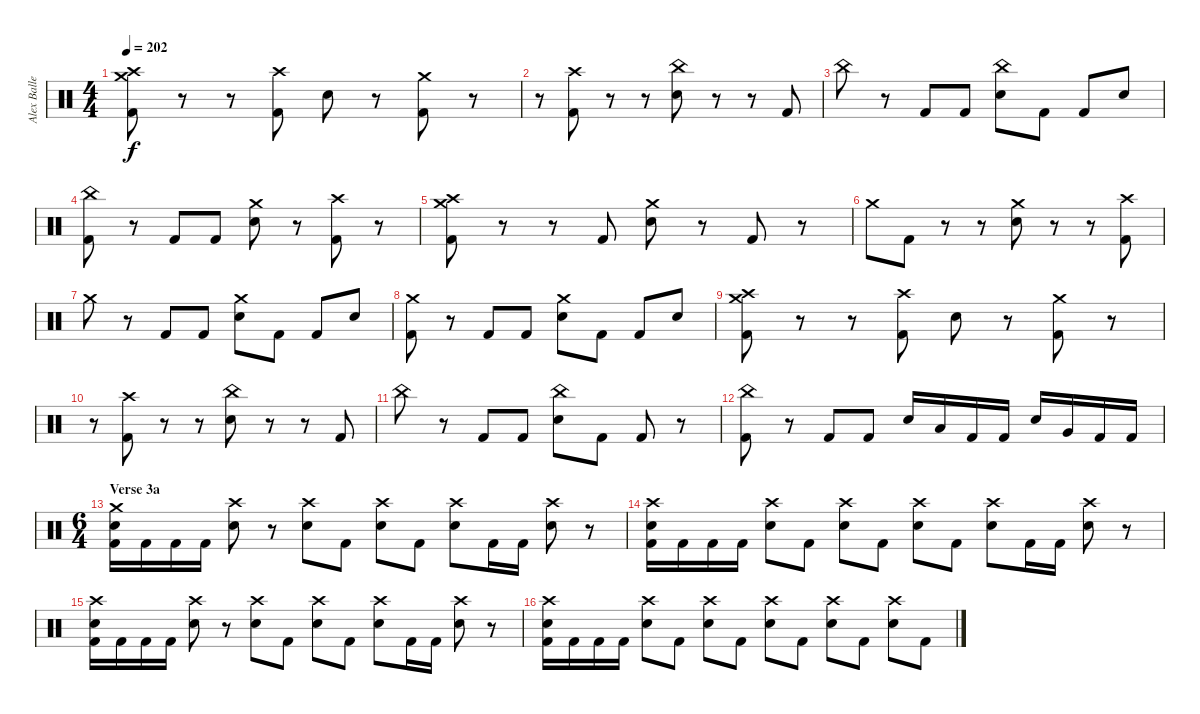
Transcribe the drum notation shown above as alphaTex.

\track ("Alex Ballew" "Alex Balle") {instrument percussion}
\staff {score}
\articulation defaults
\ts (4 4)
\tempo 202
\clef neutral
\ks c
("Crash medium (hit)" "Crash high (hit)" "Kick (hit) 2").8{dy f} r.8 r.8 ("Crash high (hit)" "Kick (hit) 2").8 "Electric Snare (hit)".8 r.8 ("Crash medium (hit)" "Kick (hit) 2").8 r.8 |
r.8 ("Crash high (hit)" "Kick (hit) 2").8 r.8 r.8 ("China (hit)" "Electric Snare (hit)").8 r.8 r.8 "Kick (hit) 2".8 |
"China (hit)".8 r.8 "Kick (hit) 2".8 "Kick (hit) 2".8 ("China (hit)" "Electric Snare (hit)").8 "Kick (hit) 2".8 "Kick (hit) 2".8 "Electric Snare (hit)".8 |
("China (hit)" "Kick (hit) 2").8 r.8 "Kick (hit) 2".8 "Kick (hit) 2".8 ("Crash medium (hit)" "Electric Snare (hit)").8 r.8 ("Crash high (hit)" "Kick (hit) 2").8 r.8 |
("Crash medium (hit)" "Crash high (hit)" "Kick (hit) 2").8 r.8 r.8 "Kick (hit) 2".8 ("Crash medium (hit)" "Electric Snare (hit)").8 r.8 "Kick (hit) 2".8 r.8 |
"Crash medium (hit)".8 "Kick (hit) 2".8 r.8 r.8 ("Crash medium (hit)" "Electric Snare (hit)").8 r.8 r.8 ("Crash high (hit)" "Kick (hit) 2").8 |
"Crash medium (hit)".8 r.8 "Kick (hit) 2".8 "Kick (hit) 2".8 ("Crash medium (hit)" "Electric Snare (hit)").8 "Kick (hit) 2".8 "Kick (hit) 2".8 "Electric Snare (hit)".8 |
("Crash medium (hit)" "Kick (hit) 2").8 r.8 "Kick (hit) 2".8 "Kick (hit) 2".8 ("Crash medium (hit)" "Electric Snare (hit)").8 "Kick (hit) 2".8 "Kick (hit) 2".8 "Electric Snare (hit)".8 |
("Crash medium (hit)" "Crash high (hit)" "Kick (hit) 2").8 r.8 r.8 ("Crash high (hit)" "Kick (hit) 2").8 "Electric Snare (hit)".8 r.8 ("Crash medium (hit)" "Kick (hit) 2").8 r.8 |
r.8 ("Crash high (hit)" "Kick (hit) 2").8 r.8 r.8 ("China (hit)" "Electric Snare (hit)").8 r.8 r.8 "Kick (hit) 2".8 |
"China (hit)".8 r.8 "Kick (hit) 2".8 "Kick (hit) 2".8 ("China (hit)" "Electric Snare (hit)").8 "Kick (hit) 2".8 "Kick (hit) 2".8 r.8 |
("China (hit)" "Kick (hit) 2").8 r.8 "Kick (hit) 2".8 "Kick (hit) 2".8 "Electric Snare (hit)".16 "Low Tom (hit)".16 "Kick (hit) 2".16 "Kick (hit) 2".16 "Electric Snare (hit)".16 "Very Low Tom (hit)".16 "Kick (hit) 2".16 "Kick (hit) 2".16 |
\ts (6 4)
\section ("" "Verse 3a")
("Crash medium (hit)" "Electric Snare (hit)" "Kick (hit) 2").16 "Kick (hit) 2".16 "Kick (hit) 2".16 "Kick (hit) 2".16 ("Crash high (hit)" "Electric Snare (hit)").8 r.8 ("Crash high (hit)" "Electric Snare (hit)").8 "Kick (hit) 2".8 ("Crash high (hit)" "Electric Snare (hit)").8 "Kick (hit) 2".8 ("Crash high (hit)" "Electric Snare (hit)").8 "Kick (hit) 2".16 "Kick (hit) 2".16 ("Crash high (hit)" "Electric Snare (hit)").8 r.8 |
("Crash high (hit)" "Electric Snare (hit)" "Kick (hit) 2").16 "Kick (hit) 2".16 "Kick (hit) 2".16 "Kick (hit) 2".16 ("Crash high (hit)" "Electric Snare (hit)").8 "Kick (hit) 2".8 ("Crash high (hit)" "Electric Snare (hit)").8 "Kick (hit) 2".8 ("Crash high (hit)" "Electric Snare (hit)").8 "Kick (hit) 2".8 ("Crash high (hit)" "Electric Snare (hit)").8 "Kick (hit) 2".16 "Kick (hit) 2".16 ("Crash high (hit)" "Electric Snare (hit)").8 r.8 |
("Crash high (hit)" "Electric Snare (hit)" "Kick (hit) 2").16 "Kick (hit) 2".16 "Kick (hit) 2".16 "Kick (hit) 2".16 ("Crash high (hit)" "Electric Snare (hit)").8 r.8 ("Crash high (hit)" "Electric Snare (hit)").8 "Kick (hit) 2".8 ("Crash high (hit)" "Electric Snare (hit)").8 "Kick (hit) 2".8 ("Crash high (hit)" "Electric Snare (hit)").8 "Kick (hit) 2".16 "Kick (hit) 2".16 ("Crash high (hit)" "Electric Snare (hit)").8 r.8 |
("Crash high (hit)" "Electric Snare (hit)" "Kick (hit) 2").16 "Kick (hit) 2".16 "Kick (hit) 2".16 "Kick (hit) 2".16 ("Crash high (hit)" "Electric Snare (hit)").8 "Kick (hit) 2".8 ("Crash high (hit)" "Electric Snare (hit)").8 "Kick (hit) 2".8 ("Crash high (hit)" "Electric Snare (hit)").8 "Kick (hit) 2".8 ("Crash high (hit)" "Electric Snare (hit)").8 "Kick (hit) 2".8 ("Crash high (hit)" "Electric Snare (hit)").8 "Kick (hit) 2".8
